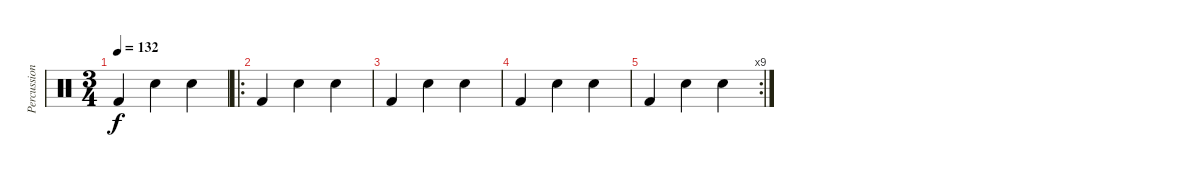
\track ("Percussions" "Percussion") {instrument percussion}
\staff {score}
\articulation defaults
\ts (3 4)
\tempo 132
\clef neutral
\ks c "Kick (hit) 2".4{dy f} "Electric Snare (hit)".4 "Electric Snare (hit)".4
|
\ro "Kick (hit) 2".4 "Electric Snare (hit)".4 "Electric Snare (hit)".4
|
"Kick (hit) 2".4 "Electric Snare (hit)".4 "Electric Snare (hit)".4 |
"Kick (hit) 2".4 "Electric Snare (hit)".4 "Electric Snare (hit)".4 |
\rc 9 "Kick (hit) 2".4 "Electric Snare (hit)".4 "Electric Snare (hit)".4
